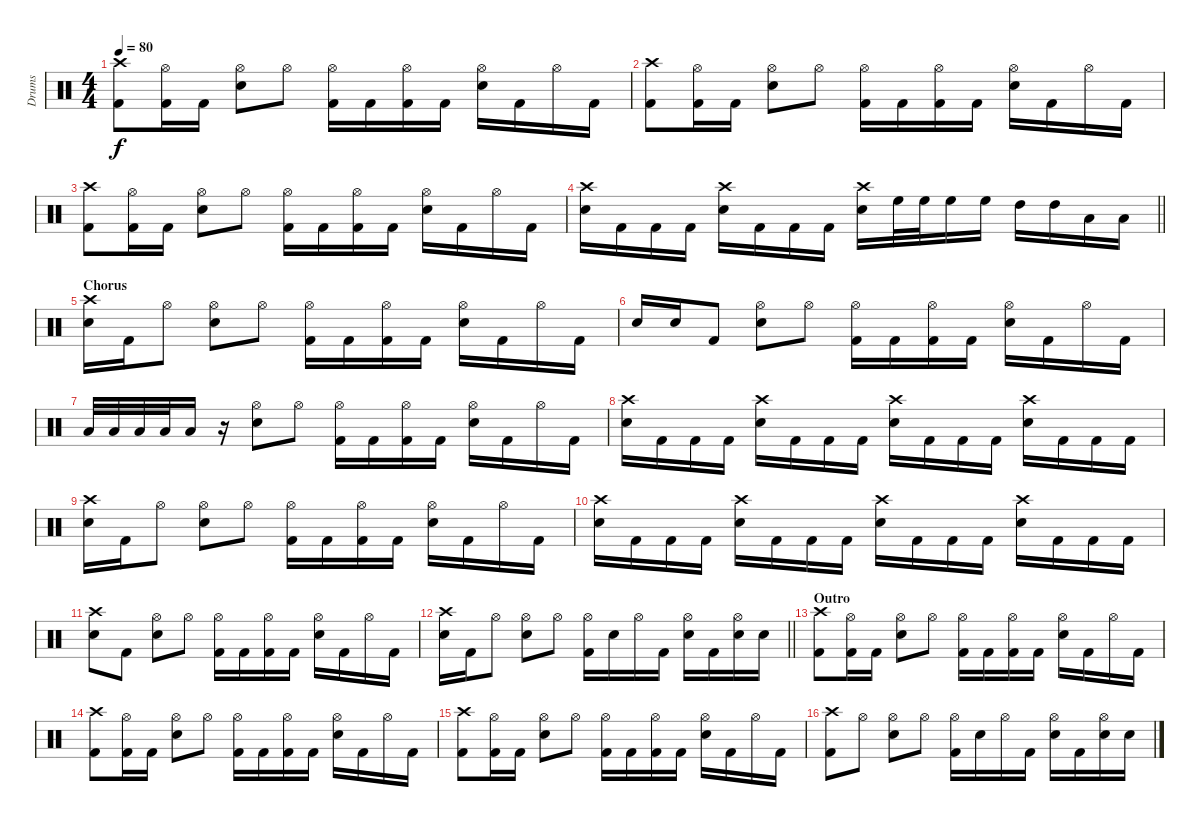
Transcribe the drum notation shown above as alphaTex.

\track ("Drums" "Drums") {instrument percussion}
\staff {score}
\articulation defaults
\ts (4 4)
\tempo 80
\clef neutral
\ks c
("Crash high (hit)" "Kick (hit) 2").8{dy f} ("Hi-Hat (open)" "Kick (hit) 2").16 "Kick (hit) 2".16 ("Hi-Hat (open)" "Electric Snare (hit)").8 "Hi-Hat (open)".8 ("Hi-Hat (open)" "Kick (hit) 2").16 "Kick (hit) 2".16 ("Hi-Hat (open)" "Kick (hit) 2").16 "Kick (hit) 2".16 ("Hi-Hat (open)" "Electric Snare (hit)").16 "Kick (hit) 2".16 "Hi-Hat (open)".16 "Kick (hit) 2".16 |
("Crash high (hit)" "Kick (hit) 2").8 ("Hi-Hat (open)" "Kick (hit) 2").16 "Kick (hit) 2".16 ("Hi-Hat (open)" "Electric Snare (hit)").8 "Hi-Hat (open)".8 ("Hi-Hat (open)" "Kick (hit) 2").16 "Kick (hit) 2".16 ("Hi-Hat (open)" "Kick (hit) 2").16 "Kick (hit) 2".16 ("Hi-Hat (open)" "Electric Snare (hit)").16 "Kick (hit) 2".16 "Hi-Hat (open)".16 "Kick (hit) 2".16 |
("Crash high (hit)" "Kick (hit) 2").8 ("Hi-Hat (open)" "Kick (hit) 2").16 "Kick (hit) 2".16 ("Hi-Hat (open)" "Electric Snare (hit)").8 "Hi-Hat (open)".8 ("Hi-Hat (open)" "Kick (hit) 2").16 "Kick (hit) 2".16 ("Hi-Hat (open)" "Kick (hit) 2").16 "Kick (hit) 2".16 ("Hi-Hat (open)" "Electric Snare (hit)").16 "Kick (hit) 2".16 "Hi-Hat (open)".16 "Kick (hit) 2".16 |
\barLineRight lightlight
("Crash high (hit)" "Electric Snare (hit)").16 "Kick (hit) 2".16 "Kick (hit) 2".16 "Kick (hit) 2".16 ("Crash high (hit)" "Electric Snare (hit)").16 "Kick (hit) 2".16 "Kick (hit) 2".16 "Kick (hit) 2".16 ("Crash high (hit)" "Electric Snare (hit)").16 "High Floor Tom (hit)".32 "High Floor Tom (hit)".32 "High Floor Tom (hit)".16 "High Floor Tom (hit)".16 "High Tom (hit)".16 "High Tom (hit)".16 "Low Tom (hit)".16 "Low Tom (hit)".16 |
\section ("" "Chorus")
("Crash high (hit)" "Electric Snare (hit)").16 "Kick (hit) 2".16 "Hi-Hat (open)".8 ("Hi-Hat (open)" "Electric Snare (hit)").8 "Hi-Hat (open)".8 ("Hi-Hat (open)" "Kick (hit) 2").16 "Kick (hit) 2".16 ("Hi-Hat (open)" "Kick (hit) 2").16 "Kick (hit) 2".16 ("Hi-Hat (open)" "Electric Snare (hit)").16 "Kick (hit) 2".16 "Hi-Hat (open)".16 "Kick (hit) 2".16 |
"Electric Snare (hit)".16 "Electric Snare (hit)".16 "Kick (hit) 2".8 ("Hi-Hat (open)" "Electric Snare (hit)").8 "Hi-Hat (open)".8 ("Hi-Hat (open)" "Kick (hit) 2").16 "Kick (hit) 2".16 ("Hi-Hat (open)" "Kick (hit) 2").16 "Kick (hit) 2".16 ("Hi-Hat (open)" "Electric Snare (hit)").16 "Kick (hit) 2".16 "Hi-Hat (open)".16 "Kick (hit) 2".16 |
"Low Tom (hit)".32 "Low Tom (hit)".32 "Low Tom (hit)".32 "Low Tom (hit)".32 "Low Tom (hit)".16 r.16 ("Hi-Hat (open)" "Electric Snare (hit)").8 "Hi-Hat (open)".8 ("Hi-Hat (open)" "Kick (hit) 2").16 "Kick (hit) 2".16 ("Hi-Hat (open)" "Kick (hit) 2").16 "Kick (hit) 2".16 ("Hi-Hat (open)" "Electric Snare (hit)").16 "Kick (hit) 2".16 "Hi-Hat (open)".16 "Kick (hit) 2".16 |
("Crash high (hit)" "Electric Snare (hit)").16 "Kick (hit) 2".16 "Kick (hit) 2".16 "Kick (hit) 2".16 ("Crash high (hit)" "Electric Snare (hit)").16 "Kick (hit) 2".16 "Kick (hit) 2".16 "Kick (hit) 2".16 ("Crash high (hit)" "Electric Snare (hit)").16 "Kick (hit) 2".16 "Kick (hit) 2".16 "Kick (hit) 2".16 ("Crash high (hit)" "Electric Snare (hit)").16 "Kick (hit) 2".16 "Kick (hit) 2".16 "Kick (hit) 2".16 |
("Crash high (hit)" "Electric Snare (hit)").16 "Kick (hit) 2".16 "Hi-Hat (open)".8 ("Hi-Hat (open)" "Electric Snare (hit)").8 "Hi-Hat (open)".8 ("Hi-Hat (open)" "Kick (hit) 2").16 "Kick (hit) 2".16 ("Hi-Hat (open)" "Kick (hit) 2").16 "Kick (hit) 2".16 ("Hi-Hat (open)" "Electric Snare (hit)").16 "Kick (hit) 2".16 "Hi-Hat (open)".16 "Kick (hit) 2".16 |
("Crash high (hit)" "Electric Snare (hit)").16 "Kick (hit) 2".16 "Kick (hit) 2".16 "Kick (hit) 2".16 ("Crash high (hit)" "Electric Snare (hit)").16 "Kick (hit) 2".16 "Kick (hit) 2".16 "Kick (hit) 2".16 ("Crash high (hit)" "Electric Snare (hit)").16 "Kick (hit) 2".16 "Kick (hit) 2".16 "Kick (hit) 2".16 ("Crash high (hit)" "Electric Snare (hit)").16 "Kick (hit) 2".16 "Kick (hit) 2".16 "Kick (hit) 2".16 |
("Crash high (hit)" "Electric Snare (hit)").8 "Kick (hit) 2".8 ("Hi-Hat (open)" "Electric Snare (hit)").8 "Hi-Hat (open)".8 ("Hi-Hat (open)" "Kick (hit) 2").16 "Kick (hit) 2".16 ("Hi-Hat (open)" "Kick (hit) 2").16 "Kick (hit) 2".16 ("Hi-Hat (open)" "Electric Snare (hit)").16 "Kick (hit) 2".16 "Hi-Hat (open)".16 "Kick (hit) 2".16 |
\barLineRight lightlight
("Crash high (hit)" "Electric Snare (hit)").16 "Kick (hit) 2".16 "Hi-Hat (open)".8 ("Hi-Hat (open)" "Electric Snare (hit)").8 "Hi-Hat (open)".8 ("Hi-Hat (open)" "Kick (hit) 2").16 "Electric Snare (hit)".16 "Hi-Hat (open)".16 "Kick (hit) 2".16 ("Hi-Hat (open)" "Electric Snare (hit)").16 "Kick (hit) 2".16 ("Hi-Hat (open)" "Electric Snare (hit)").16 "Electric Snare (hit)".16 |
\section ("" "Outro")
("Crash high (hit)" "Kick (hit) 2").8 ("Hi-Hat (open)" "Kick (hit) 2").16 "Kick (hit) 2".16 ("Hi-Hat (open)" "Electric Snare (hit)").8 "Hi-Hat (open)".8 ("Hi-Hat (open)" "Kick (hit) 2").16 "Kick (hit) 2".16 ("Hi-Hat (open)" "Kick (hit) 2").16 "Kick (hit) 2".16 ("Hi-Hat (open)" "Electric Snare (hit)").16 "Kick (hit) 2".16 "Hi-Hat (open)".16 "Kick (hit) 2".16 |
("Crash high (hit)" "Kick (hit) 2").8 ("Hi-Hat (open)" "Kick (hit) 2").16 "Kick (hit) 2".16 ("Hi-Hat (open)" "Electric Snare (hit)").8 "Hi-Hat (open)".8 ("Hi-Hat (open)" "Kick (hit) 2").16 "Kick (hit) 2".16 ("Hi-Hat (open)" "Kick (hit) 2").16 "Kick (hit) 2".16 ("Hi-Hat (open)" "Electric Snare (hit)").16 "Kick (hit) 2".16 "Hi-Hat (open)".16 "Kick (hit) 2".16 |
("Crash high (hit)" "Kick (hit) 2").8 ("Hi-Hat (open)" "Kick (hit) 2").16 "Kick (hit) 2".16 ("Hi-Hat (open)" "Electric Snare (hit)").8 "Hi-Hat (open)".8 ("Hi-Hat (open)" "Kick (hit) 2").16 "Kick (hit) 2".16 ("Hi-Hat (open)" "Kick (hit) 2").16 "Kick (hit) 2".16 ("Hi-Hat (open)" "Electric Snare (hit)").16 "Kick (hit) 2".16 "Hi-Hat (open)".16 "Kick (hit) 2".16 |
("Crash high (hit)" "Kick (hit) 2").8 "Hi-Hat (open)".8 ("Hi-Hat (open)" "Electric Snare (hit)").8 "Hi-Hat (open)".8 ("Hi-Hat (open)" "Kick (hit) 2").16 "Electric Snare (hit)".16 "Hi-Hat (open)".16 "Kick (hit) 2".16 ("Hi-Hat (open)" "Electric Snare (hit)").16 "Kick (hit) 2".16 ("Hi-Hat (open)" "Electric Snare (hit)").16 "Electric Snare (hit)".16
